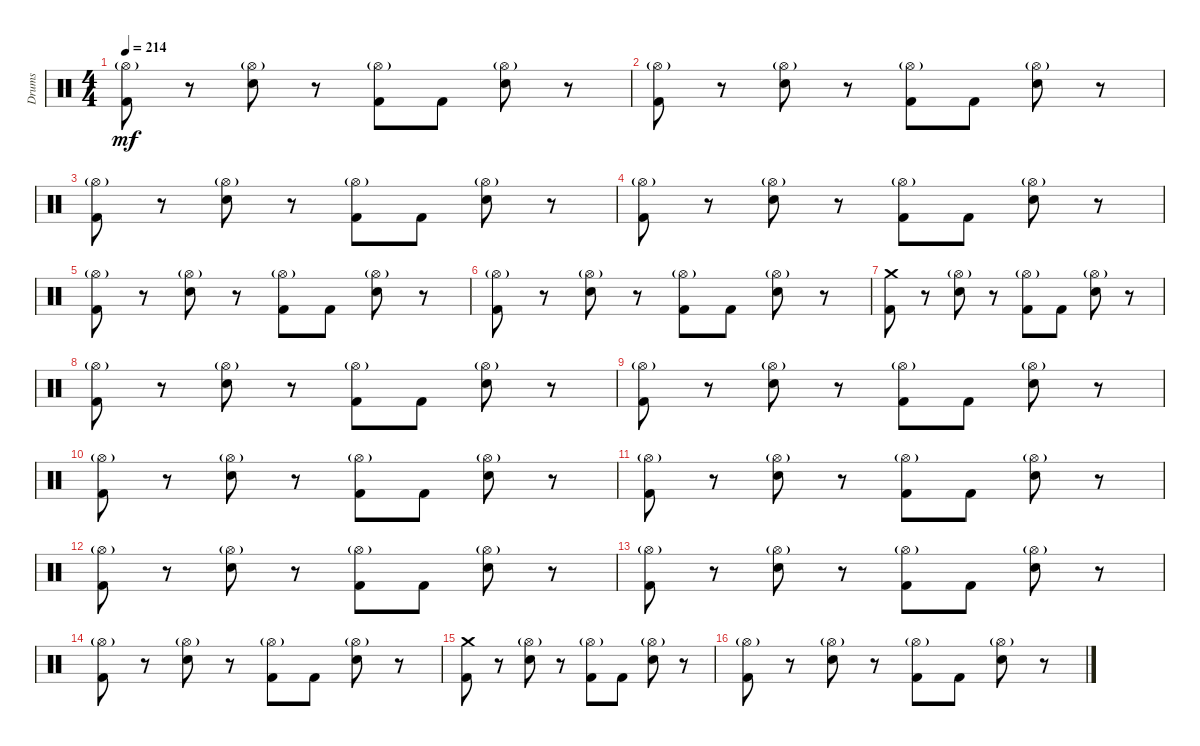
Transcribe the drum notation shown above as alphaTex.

\track ("Drums" "Drums") {instrument percussion}
\staff {score}
\articulation defaults
\ts (4 4)
\tempo 214
\clef neutral
\ks c
("Hi-Hat (open)"{g} "Kick (hit) 2").8{dy mf} r.8 ("Hi-Hat (open)"{g} "Snare (hit) 2").8 r.8 ("Hi-Hat (open)"{g} "Kick (hit) 2").8 "Kick (hit) 2".8 ("Hi-Hat (open)"{g} "Snare (hit) 2").8 r.8 |
("Hi-Hat (open)"{g} "Kick (hit) 2").8 r.8 ("Hi-Hat (open)"{g} "Snare (hit) 2").8 r.8 ("Hi-Hat (open)"{g} "Kick (hit) 2").8 "Kick (hit) 2".8 ("Hi-Hat (open)"{g} "Snare (hit) 2").8 r.8 |
("Hi-Hat (open)"{g} "Kick (hit) 2").8 r.8 ("Hi-Hat (open)"{g} "Snare (hit) 2").8 r.8 ("Hi-Hat (open)"{g} "Kick (hit) 2").8 "Kick (hit) 2".8 ("Hi-Hat (open)"{g} "Snare (hit) 2").8 r.8 |
("Hi-Hat (open)"{g} "Kick (hit) 2").8 r.8 ("Hi-Hat (open)"{g} "Snare (hit) 2").8 r.8 ("Hi-Hat (open)"{g} "Kick (hit) 2").8 "Kick (hit) 2".8 ("Hi-Hat (open)"{g} "Snare (hit) 2").8 r.8 |
("Hi-Hat (open)"{g} "Kick (hit) 2").8 r.8 ("Hi-Hat (open)"{g} "Snare (hit) 2").8 r.8 ("Hi-Hat (open)"{g} "Kick (hit) 2").8 "Kick (hit) 2".8 ("Hi-Hat (open)"{g} "Snare (hit) 2").8 r.8 |
("Hi-Hat (open)"{g} "Kick (hit) 2").8 r.8 ("Hi-Hat (open)"{g} "Snare (hit) 2").8 r.8 ("Hi-Hat (open)"{g} "Kick (hit) 2").8 "Kick (hit) 2".8 ("Hi-Hat (open)"{g} "Snare (hit) 2").8 r.8 |
("Crash medium (hit)" "Kick (hit) 2").8 r.8 ("Hi-Hat (open)"{g} "Snare (hit) 2").8 r.8 ("Hi-Hat (open)"{g} "Kick (hit) 2").8 "Kick (hit) 2".8 ("Hi-Hat (open)"{g} "Snare (hit) 2").8 r.8 |
("Hi-Hat (open)"{g} "Kick (hit) 2").8 r.8 ("Hi-Hat (open)"{g} "Snare (hit) 2").8 r.8 ("Hi-Hat (open)"{g} "Kick (hit) 2").8 "Kick (hit) 2".8 ("Hi-Hat (open)"{g} "Snare (hit) 2").8 r.8 |
("Hi-Hat (open)"{g} "Kick (hit) 2").8 r.8 ("Hi-Hat (open)"{g} "Snare (hit) 2").8 r.8 ("Hi-Hat (open)"{g} "Kick (hit) 2").8 "Kick (hit) 2".8 ("Hi-Hat (open)"{g} "Snare (hit) 2").8 r.8 |
("Hi-Hat (open)"{g} "Kick (hit) 2").8 r.8 ("Hi-Hat (open)"{g} "Snare (hit) 2").8 r.8 ("Hi-Hat (open)"{g} "Kick (hit) 2").8 "Kick (hit) 2".8 ("Hi-Hat (open)"{g} "Snare (hit) 2").8 r.8 |
("Hi-Hat (open)"{g} "Kick (hit) 2").8 r.8 ("Hi-Hat (open)"{g} "Snare (hit) 2").8 r.8 ("Hi-Hat (open)"{g} "Kick (hit) 2").8 "Kick (hit) 2".8 ("Hi-Hat (open)"{g} "Snare (hit) 2").8 r.8 |
("Hi-Hat (open)"{g} "Kick (hit) 2").8 r.8 ("Hi-Hat (open)"{g} "Snare (hit) 2").8 r.8 ("Hi-Hat (open)"{g} "Kick (hit) 2").8 "Kick (hit) 2".8 ("Hi-Hat (open)"{g} "Snare (hit) 2").8 r.8 |
("Hi-Hat (open)"{g} "Kick (hit) 2").8 r.8 ("Hi-Hat (open)"{g} "Snare (hit) 2").8 r.8 ("Hi-Hat (open)"{g} "Kick (hit) 2").8 "Kick (hit) 2".8 ("Hi-Hat (open)"{g} "Snare (hit) 2").8 r.8 |
("Hi-Hat (open)"{g} "Kick (hit) 2").8 r.8 ("Hi-Hat (open)"{g} "Snare (hit) 2").8 r.8 ("Hi-Hat (open)"{g} "Kick (hit) 2").8 "Kick (hit) 2".8 ("Hi-Hat (open)"{g} "Snare (hit) 2").8 r.8 |
("Crash medium (hit)" "Kick (hit) 2").8 r.8 ("Hi-Hat (open)"{g} "Snare (hit) 2").8 r.8 ("Hi-Hat (open)"{g} "Kick (hit) 2").8 "Kick (hit) 2".8 ("Hi-Hat (open)"{g} "Snare (hit) 2").8 r.8 |
("Hi-Hat (open)"{g} "Kick (hit) 2").8 r.8 ("Hi-Hat (open)"{g} "Snare (hit) 2").8 r.8 ("Hi-Hat (open)"{g} "Kick (hit) 2").8 "Kick (hit) 2".8 ("Hi-Hat (open)"{g} "Snare (hit) 2").8 r.8
